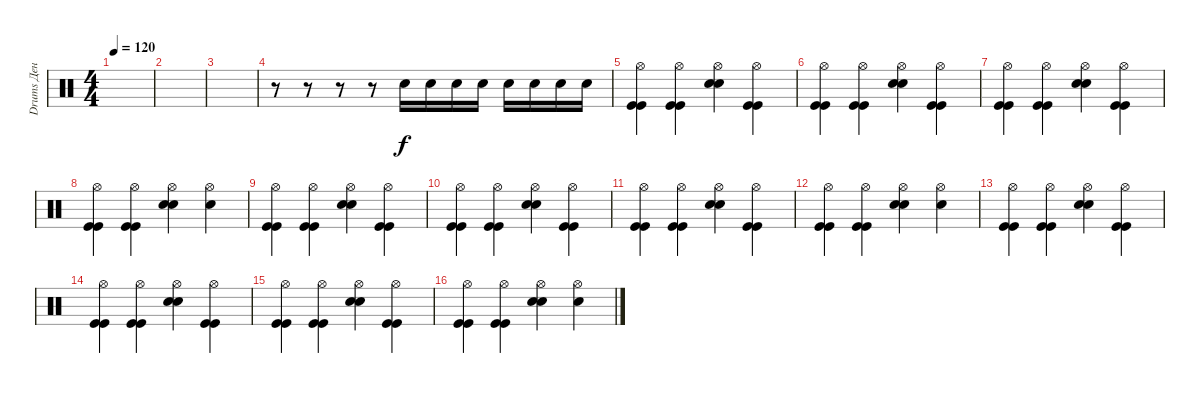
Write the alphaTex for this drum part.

\track ("Drums Ден" "Drums Ден") {instrument percussion}
\staff {score}
\articulation defaults
\ts (4 4)
\tempo 120
\clef neutral
\ks c
|
|
|
r.8 r.8 r.8 r.8 "Electric Snare (hit)".16 "Electric Snare (hit)".16 "Electric Snare (hit)".16 "Electric Snare (hit)".16 "Electric Snare (hit)".16 "Electric Snare (hit)".16 "Electric Snare (hit)".16 "Electric Snare (hit)".16 |
("Hi-Hat (open)" "Kick (hit)" "Kick (hit)").4 ("Hi-Hat (open)" "Kick (hit)" "Kick (hit)").4 ("Hi-Hat (open)" "Electric Snare (hit)" "Electric Snare (hit)").4 ("Hi-Hat (open)" "Kick (hit)" "Kick (hit)").4 |
("Hi-Hat (open)" "Kick (hit)" "Kick (hit)").4 ("Hi-Hat (open)" "Kick (hit)" "Kick (hit)").4 ("Hi-Hat (open)" "Electric Snare (hit)" "Electric Snare (hit)").4 ("Hi-Hat (open)" "Kick (hit)" "Kick (hit)").4 |
("Hi-Hat (open)" "Kick (hit)" "Kick (hit)").4 ("Hi-Hat (open)" "Kick (hit)" "Kick (hit)").4 ("Hi-Hat (open)" "Electric Snare (hit)" "Electric Snare (hit)").4 ("Hi-Hat (open)" "Kick (hit)" "Kick (hit)").4 |
("Hi-Hat (open)" "Kick (hit)" "Kick (hit)").4 ("Hi-Hat (open)" "Kick (hit)" "Kick (hit)").4 ("Hi-Hat (open)" "Electric Snare (hit)" "Electric Snare (hit)").4 ("Hi-Hat (open)" "Electric Snare (hit)").4 |
("Hi-Hat (open)" "Kick (hit)" "Kick (hit)").4 ("Hi-Hat (open)" "Kick (hit)" "Kick (hit)").4 ("Hi-Hat (open)" "Electric Snare (hit)" "Electric Snare (hit)").4 ("Hi-Hat (open)" "Kick (hit)" "Kick (hit)").4 |
("Hi-Hat (open)" "Kick (hit)" "Kick (hit)").4 ("Hi-Hat (open)" "Kick (hit)" "Kick (hit)").4 ("Hi-Hat (open)" "Electric Snare (hit)" "Electric Snare (hit)").4 ("Hi-Hat (open)" "Kick (hit)" "Kick (hit)").4 |
("Hi-Hat (open)" "Kick (hit)" "Kick (hit)").4 ("Hi-Hat (open)" "Kick (hit)" "Kick (hit)").4 ("Hi-Hat (open)" "Electric Snare (hit)" "Electric Snare (hit)").4 ("Hi-Hat (open)" "Kick (hit)" "Kick (hit)").4 |
("Hi-Hat (open)" "Kick (hit)" "Kick (hit)").4 ("Hi-Hat (open)" "Kick (hit)" "Kick (hit)").4 ("Hi-Hat (open)" "Electric Snare (hit)" "Electric Snare (hit)").4 ("Hi-Hat (open)" "Electric Snare (hit)").4 |
("Hi-Hat (open)" "Kick (hit)" "Kick (hit)").4 ("Hi-Hat (open)" "Kick (hit)" "Kick (hit)").4 ("Hi-Hat (open)" "Electric Snare (hit)" "Electric Snare (hit)").4 ("Hi-Hat (open)" "Kick (hit)" "Kick (hit)").4 |
("Hi-Hat (open)" "Kick (hit)" "Kick (hit)").4 ("Hi-Hat (open)" "Kick (hit)" "Kick (hit)").4 ("Hi-Hat (open)" "Electric Snare (hit)" "Electric Snare (hit)").4 ("Hi-Hat (open)" "Kick (hit)" "Kick (hit)").4 |
("Hi-Hat (open)" "Kick (hit)" "Kick (hit)").4 ("Hi-Hat (open)" "Kick (hit)" "Kick (hit)").4 ("Hi-Hat (open)" "Electric Snare (hit)" "Electric Snare (hit)").4 ("Hi-Hat (open)" "Kick (hit)" "Kick (hit)").4 |
("Hi-Hat (open)" "Kick (hit)" "Kick (hit)").4 ("Hi-Hat (open)" "Kick (hit)" "Kick (hit)").4 ("Hi-Hat (open)" "Electric Snare (hit)" "Electric Snare (hit)").4 ("Hi-Hat (open)" "Electric Snare (hit)").4
